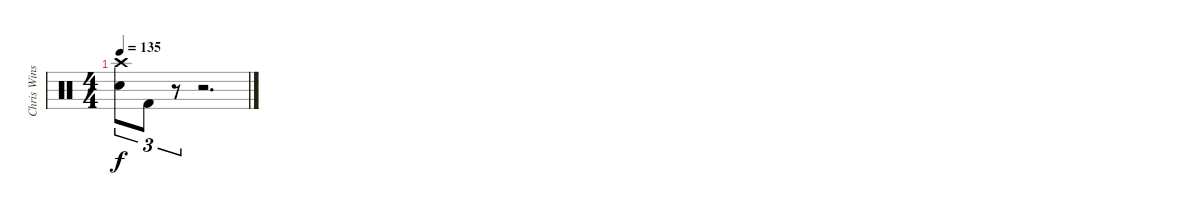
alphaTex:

\track ("Chris Winship (Drums)" "Chris Wins") {instrument percussion}
\staff {score}
\articulation defaults
\ts (4 4)
\tempo 135
\clef neutral
\ks c
("Crash high (hit)" "Electric Snare (hit)").8{tu (3 2) dy f} "Kick (hit) 2".8{tu (3 2)} r.8{tu (3 2)} r.2{d}
